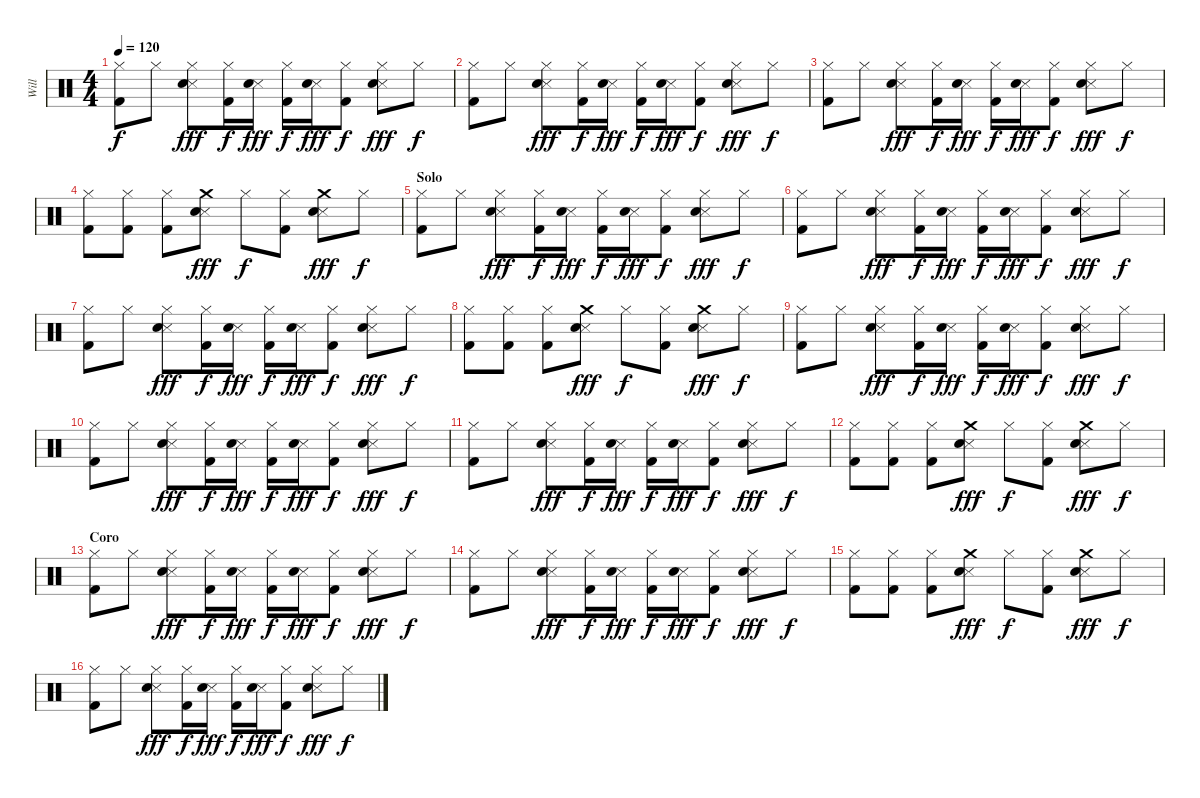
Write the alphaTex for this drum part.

\track ("Will " "Will ") {instrument percussion}
\staff {score}
\articulation defaults
\ts (4 4)
\tempo 120
\clef neutral
\ks c
("Hi-Hat (closed)" "Kick (hit) 2").8{dy f} "Hi-Hat (closed)".8 ("Hi-Hat (closed)" "Snare (side stick) 3" "Electric Snare (hit)").8{dy fff} ("Hi-Hat (closed)" "Kick (hit) 2").16{dy f} ("Snare (side stick) 3" "Electric Snare (hit)").16{dy fff} ("Hi-Hat (closed)" "Kick (hit) 2").16{dy f} ("Snare (side stick) 3" "Electric Snare (hit)").16{dy fff} ("Hi-Hat (closed)" "Kick (hit) 2").8{dy f} ("Hi-Hat (closed)" "Snare (side stick) 3" "Electric Snare (hit)").8{dy fff} "Hi-Hat (closed)".8{dy f} |
("Hi-Hat (closed)" "Kick (hit) 2").8 "Hi-Hat (closed)".8 ("Hi-Hat (closed)" "Snare (side stick) 3" "Electric Snare (hit)").8{dy fff} ("Hi-Hat (closed)" "Kick (hit) 2").16{dy f} ("Snare (side stick) 3" "Electric Snare (hit)").16{dy fff} ("Hi-Hat (closed)" "Kick (hit) 2").16{dy f} ("Snare (side stick) 3" "Electric Snare (hit)").16{dy fff} ("Hi-Hat (closed)" "Kick (hit) 2").8{dy f} ("Hi-Hat (closed)" "Snare (side stick) 3" "Electric Snare (hit)").8{dy fff} "Hi-Hat (closed)".8{dy f} |
("Hi-Hat (closed)" "Kick (hit) 2").8 "Hi-Hat (closed)".8 ("Hi-Hat (closed)" "Snare (side stick) 3" "Electric Snare (hit)").8{dy fff} ("Hi-Hat (closed)" "Kick (hit) 2").16{dy f} ("Snare (side stick) 3" "Electric Snare (hit)").16{dy fff} ("Hi-Hat (closed)" "Kick (hit) 2").16{dy f} ("Snare (side stick) 3" "Electric Snare (hit)").16{dy fff} ("Hi-Hat (closed)" "Kick (hit) 2").8{dy f} ("Hi-Hat (closed)" "Snare (side stick) 3" "Electric Snare (hit)").8{dy fff} "Hi-Hat (closed)".8{dy f} |
("Hi-Hat (closed)" "Kick (hit) 2").8 ("Hi-Hat (closed)" "Kick (hit) 2").8 ("Hi-Hat (closed)" "Kick (hit) 2").8 ("Crash medium (hit)" "Snare (side stick) 3" "Electric Snare (hit)").8{dy fff} "Hi-Hat (closed)".8{dy f} ("Hi-Hat (closed)" "Kick (hit) 2").8 ("Crash medium (hit)" "Snare (side stick) 3" "Electric Snare (hit)").8{dy fff} "Hi-Hat (closed)".8{dy f} |
\section ("" "Solo")
("Hi-Hat (closed)" "Kick (hit) 2").8 "Hi-Hat (closed)".8 ("Hi-Hat (closed)" "Snare (side stick) 3" "Electric Snare (hit)").8{dy fff} ("Hi-Hat (closed)" "Kick (hit) 2").16{dy f} ("Snare (side stick) 3" "Electric Snare (hit)").16{dy fff} ("Hi-Hat (closed)" "Kick (hit) 2").16{dy f} ("Snare (side stick) 3" "Electric Snare (hit)").16{dy fff} ("Hi-Hat (closed)" "Kick (hit) 2").8{dy f} ("Hi-Hat (closed)" "Snare (side stick) 3" "Electric Snare (hit)").8{dy fff} "Hi-Hat (closed)".8{dy f} |
("Hi-Hat (closed)" "Kick (hit) 2").8 "Hi-Hat (closed)".8 ("Hi-Hat (closed)" "Snare (side stick) 3" "Electric Snare (hit)").8{dy fff} ("Hi-Hat (closed)" "Kick (hit) 2").16{dy f} ("Snare (side stick) 3" "Electric Snare (hit)").16{dy fff} ("Hi-Hat (closed)" "Kick (hit) 2").16{dy f} ("Snare (side stick) 3" "Electric Snare (hit)").16{dy fff} ("Hi-Hat (closed)" "Kick (hit) 2").8{dy f} ("Hi-Hat (closed)" "Snare (side stick) 3" "Electric Snare (hit)").8{dy fff} "Hi-Hat (closed)".8{dy f} |
("Hi-Hat (closed)" "Kick (hit) 2").8 "Hi-Hat (closed)".8 ("Hi-Hat (closed)" "Snare (side stick) 3" "Electric Snare (hit)").8{dy fff} ("Hi-Hat (closed)" "Kick (hit) 2").16{dy f} ("Snare (side stick) 3" "Electric Snare (hit)").16{dy fff} ("Hi-Hat (closed)" "Kick (hit) 2").16{dy f} ("Snare (side stick) 3" "Electric Snare (hit)").16{dy fff} ("Hi-Hat (closed)" "Kick (hit) 2").8{dy f} ("Hi-Hat (closed)" "Snare (side stick) 3" "Electric Snare (hit)").8{dy fff} "Hi-Hat (closed)".8{dy f} |
("Hi-Hat (closed)" "Kick (hit) 2").8 ("Hi-Hat (closed)" "Kick (hit) 2").8 ("Hi-Hat (closed)" "Kick (hit) 2").8 ("Crash medium (hit)" "Snare (side stick) 3" "Electric Snare (hit)").8{dy fff} "Hi-Hat (closed)".8{dy f} ("Hi-Hat (closed)" "Kick (hit) 2").8 ("Crash medium (hit)" "Snare (side stick) 3" "Electric Snare (hit)").8{dy fff} "Hi-Hat (closed)".8{dy f} |
("Hi-Hat (closed)" "Kick (hit) 2").8 "Hi-Hat (closed)".8 ("Hi-Hat (closed)" "Snare (side stick) 3" "Electric Snare (hit)").8{dy fff} ("Hi-Hat (closed)" "Kick (hit) 2").16{dy f} ("Snare (side stick) 3" "Electric Snare (hit)").16{dy fff} ("Hi-Hat (closed)" "Kick (hit) 2").16{dy f} ("Snare (side stick) 3" "Electric Snare (hit)").16{dy fff} ("Hi-Hat (closed)" "Kick (hit) 2").8{dy f} ("Hi-Hat (closed)" "Snare (side stick) 3" "Electric Snare (hit)").8{dy fff} "Hi-Hat (closed)".8{dy f} |
("Hi-Hat (closed)" "Kick (hit) 2").8 "Hi-Hat (closed)".8 ("Hi-Hat (closed)" "Snare (side stick) 3" "Electric Snare (hit)").8{dy fff} ("Hi-Hat (closed)" "Kick (hit) 2").16{dy f} ("Snare (side stick) 3" "Electric Snare (hit)").16{dy fff} ("Hi-Hat (closed)" "Kick (hit) 2").16{dy f} ("Snare (side stick) 3" "Electric Snare (hit)").16{dy fff} ("Hi-Hat (closed)" "Kick (hit) 2").8{dy f} ("Hi-Hat (closed)" "Snare (side stick) 3" "Electric Snare (hit)").8{dy fff} "Hi-Hat (closed)".8{dy f} |
("Hi-Hat (closed)" "Kick (hit) 2").8 "Hi-Hat (closed)".8 ("Hi-Hat (closed)" "Snare (side stick) 3" "Electric Snare (hit)").8{dy fff} ("Hi-Hat (closed)" "Kick (hit) 2").16{dy f} ("Snare (side stick) 3" "Electric Snare (hit)").16{dy fff} ("Hi-Hat (closed)" "Kick (hit) 2").16{dy f} ("Snare (side stick) 3" "Electric Snare (hit)").16{dy fff} ("Hi-Hat (closed)" "Kick (hit) 2").8{dy f} ("Hi-Hat (closed)" "Snare (side stick) 3" "Electric Snare (hit)").8{dy fff} "Hi-Hat (closed)".8{dy f} |
("Hi-Hat (closed)" "Kick (hit) 2").8 ("Hi-Hat (closed)" "Kick (hit) 2").8 ("Hi-Hat (closed)" "Kick (hit) 2").8 ("Crash medium (hit)" "Snare (side stick) 3" "Electric Snare (hit)").8{dy fff} "Hi-Hat (closed)".8{dy f} ("Hi-Hat (closed)" "Kick (hit) 2").8 ("Crash medium (hit)" "Snare (side stick) 3" "Electric Snare (hit)").8{dy fff} "Hi-Hat (closed)".8{dy f} |
\section ("" "Coro")
("Hi-Hat (closed)" "Kick (hit) 2").8 "Hi-Hat (closed)".8 ("Hi-Hat (closed)" "Snare (side stick) 3" "Electric Snare (hit)").8{dy fff} ("Hi-Hat (closed)" "Kick (hit) 2").16{dy f} ("Snare (side stick) 3" "Electric Snare (hit)").16{dy fff} ("Hi-Hat (closed)" "Kick (hit) 2").16{dy f} ("Snare (side stick) 3" "Electric Snare (hit)").16{dy fff} ("Hi-Hat (closed)" "Kick (hit) 2").8{dy f} ("Hi-Hat (closed)" "Snare (side stick) 3" "Electric Snare (hit)").8{dy fff} "Hi-Hat (closed)".8{dy f} |
("Hi-Hat (closed)" "Kick (hit) 2").8 "Hi-Hat (closed)".8 ("Hi-Hat (closed)" "Snare (side stick) 3" "Electric Snare (hit)").8{dy fff} ("Hi-Hat (closed)" "Kick (hit) 2").16{dy f} ("Snare (side stick) 3" "Electric Snare (hit)").16{dy fff} ("Hi-Hat (closed)" "Kick (hit) 2").16{dy f} ("Snare (side stick) 3" "Electric Snare (hit)").16{dy fff} ("Hi-Hat (closed)" "Kick (hit) 2").8{dy f} ("Hi-Hat (closed)" "Snare (side stick) 3" "Electric Snare (hit)").8{dy fff} "Hi-Hat (closed)".8{dy f} |
("Hi-Hat (closed)" "Kick (hit) 2").8 ("Hi-Hat (closed)" "Kick (hit) 2").8 ("Hi-Hat (closed)" "Kick (hit) 2").8 ("Crash medium (hit)" "Snare (side stick) 3" "Electric Snare (hit)").8{dy fff} "Hi-Hat (closed)".8{dy f} ("Hi-Hat (closed)" "Kick (hit) 2").8 ("Crash medium (hit)" "Snare (side stick) 3" "Electric Snare (hit)").8{dy fff} "Hi-Hat (closed)".8{dy f} |
("Hi-Hat (closed)" "Kick (hit) 2").8 "Hi-Hat (closed)".8 ("Hi-Hat (closed)" "Snare (side stick) 3" "Electric Snare (hit)").8{dy fff} ("Hi-Hat (closed)" "Kick (hit) 2").16{dy f} ("Snare (side stick) 3" "Electric Snare (hit)").16{dy fff} ("Hi-Hat (closed)" "Kick (hit) 2").16{dy f} ("Snare (side stick) 3" "Electric Snare (hit)").16{dy fff} ("Hi-Hat (closed)" "Kick (hit) 2").8{dy f} ("Hi-Hat (closed)" "Snare (side stick) 3" "Electric Snare (hit)").8{dy fff} "Hi-Hat (closed)".8{dy f}
